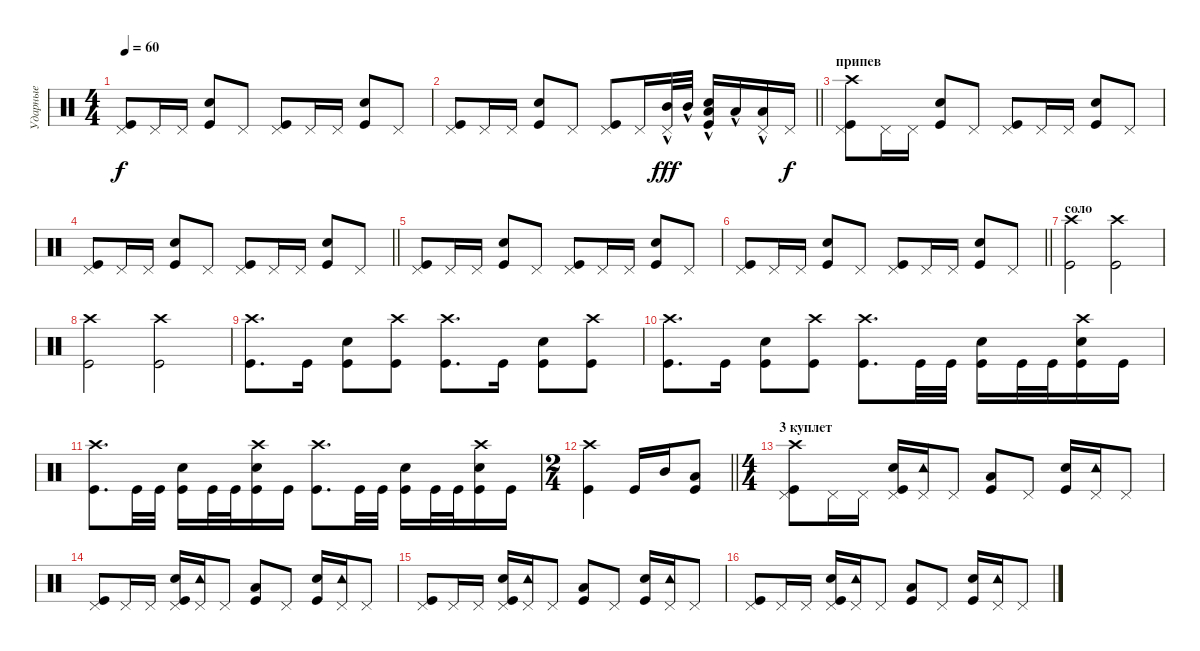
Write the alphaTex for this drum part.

\track ("Ударные" "Ударные") {instrument percussion}
\staff {score}
\articulation defaults
\ts (4 4)
\tempo 60
\clef neutral
\ks c
("Pedal Hi-Hat (hit)" "Kick (hit)").8{dy f} "Pedal Hi-Hat (hit)".16 "Pedal Hi-Hat (hit)".16 ("Kick (hit)" "Snare (hit) 2").8 "Pedal Hi-Hat (hit)".8 ("Pedal Hi-Hat (hit)" "Kick (hit)").8 "Pedal Hi-Hat (hit)".16 "Pedal Hi-Hat (hit)".16 ("Kick (hit)" "Snare (hit) 2").8 "Pedal Hi-Hat (hit)".8 |
\barLineRight lightlight
("Pedal Hi-Hat (hit)" "Kick (hit)").8 "Pedal Hi-Hat (hit)".16 "Pedal Hi-Hat (hit)".16 ("Kick (hit)" "Snare (hit) 2").8 "Pedal Hi-Hat (hit)".8 ("Pedal Hi-Hat (hit)" "Kick (hit)").8 "Pedal Hi-Hat (hit)".16 ("Pedal Hi-Hat (hit)" "Mid Tom (hit)"{hac}).32{dy fff} "Mid Tom (hit)"{hac}.32 ("Low Tom (hit)"{hac} "Snare (hit) 2" "Kick (hit)").16 "Low Tom (hit)"{hac}.16 ("Pedal Hi-Hat (hit)" "Low Tom (hit)"{hac}).16 "Pedal Hi-Hat (hit)".16{dy f} |
\section ("" "припев")
("Pedal Hi-Hat (hit)" "Kick (hit)" "Crash high (hit)").8 "Pedal Hi-Hat (hit)".16 "Pedal Hi-Hat (hit)".16 ("Kick (hit)" "Snare (hit) 2").8 "Pedal Hi-Hat (hit)".8 ("Pedal Hi-Hat (hit)" "Kick (hit)").8 "Pedal Hi-Hat (hit)".16 "Pedal Hi-Hat (hit)".16 ("Kick (hit)" "Snare (hit) 2").8 "Pedal Hi-Hat (hit)".8 |
\barLineRight lightlight
("Pedal Hi-Hat (hit)" "Kick (hit)").8 "Pedal Hi-Hat (hit)".16 "Pedal Hi-Hat (hit)".16 ("Kick (hit)" "Snare (hit) 2").8 "Pedal Hi-Hat (hit)".8 ("Pedal Hi-Hat (hit)" "Kick (hit)").8 "Pedal Hi-Hat (hit)".16 "Pedal Hi-Hat (hit)".16 ("Kick (hit)" "Snare (hit) 2").8 "Pedal Hi-Hat (hit)".8 |
("Pedal Hi-Hat (hit)" "Kick (hit)").8 "Pedal Hi-Hat (hit)".16 "Pedal Hi-Hat (hit)".16 ("Kick (hit)" "Snare (hit) 2").8 "Pedal Hi-Hat (hit)".8 ("Pedal Hi-Hat (hit)" "Kick (hit)").8 "Pedal Hi-Hat (hit)".16 "Pedal Hi-Hat (hit)".16 ("Kick (hit)" "Snare (hit) 2").8 "Pedal Hi-Hat (hit)".8 |
\barLineRight lightlight
("Pedal Hi-Hat (hit)" "Kick (hit)").8 "Pedal Hi-Hat (hit)".16 "Pedal Hi-Hat (hit)".16 ("Kick (hit)" "Snare (hit) 2").8 "Pedal Hi-Hat (hit)".8 ("Pedal Hi-Hat (hit)" "Kick (hit)").8 "Pedal Hi-Hat (hit)".16 "Pedal Hi-Hat (hit)".16 ("Kick (hit)" "Snare (hit) 2").8 "Pedal Hi-Hat (hit)".8 |
\section ("" "соло")
("Crash high (hit)" "Kick (hit)").2 ("Crash high (hit)" "Kick (hit)").2 |
("Kick (hit)" "Crash high (hit)").2 ("Kick (hit)" "Crash high (hit)").2 |
("Kick (hit)" "Crash high (hit)").8{d} "Kick (hit)".16 ("Kick (hit)" "Snare (hit) 2").8 ("Kick (hit)" "Crash high (hit)").8 ("Kick (hit)" "Crash high (hit)").8{d} "Kick (hit)".16 ("Kick (hit)" "Snare (hit) 2").8 ("Kick (hit)" "Crash high (hit)").8 |
("Kick (hit)" "Crash high (hit)").8{d} "Kick (hit)".16 ("Kick (hit)" "Snare (hit) 2").8 ("Kick (hit)" "Crash high (hit)").8 ("Kick (hit)" "Crash high (hit)").8{d} "Kick (hit)".32 "Kick (hit)".32 ("Kick (hit)" "Snare (hit) 2").16 "Kick (hit)".32 "Kick (hit)".32 ("Kick (hit)" "Snare (hit) 2" "Crash high (hit)").16 "Kick (hit)".16 |
("Kick (hit)" "Crash high (hit)").8{d} "Kick (hit)".32 "Kick (hit)".32 ("Kick (hit)" "Snare (hit) 2").16 "Kick (hit)".32 "Kick (hit)".32 ("Kick (hit)" "Snare (hit) 2" "Crash high (hit)").16 "Kick (hit)".16 ("Kick (hit)" "Crash high (hit)").8{d} "Kick (hit)".32 "Kick (hit)".32 ("Kick (hit)" "Snare (hit) 2").16 "Kick (hit)".32 "Kick (hit)".32 ("Kick (hit)" "Snare (hit) 2" "Crash high (hit)").16 "Kick (hit)".16 |
\ts (2 4)
\barLineRight lightlight
("Kick (hit)" "Crash high (hit)").4 "Kick (hit)".16 "Mid Tom (hit)".16 ("Kick (hit)" "Low Tom (hit)").8 |
\ts (4 4)
\section ("" "3 куплет")
("Pedal Hi-Hat (hit)" "Kick (hit)" "Crash high (hit)").8 "Pedal Hi-Hat (hit)".16 "Pedal Hi-Hat (hit)".16 ("Pedal Hi-Hat (hit)" "Kick (hit)" "Snare (hit) 2").16 ("Pedal Hi-Hat (hit)" "Tambourine (hit)").16 "Pedal Hi-Hat (hit)".8 ("Kick (hit)" "Low Tom (hit)").8 "Pedal Hi-Hat (hit)".8 ("Kick (hit)" "Snare (hit) 2").16 ("Pedal Hi-Hat (hit)" "Tambourine (hit)").16 "Pedal Hi-Hat (hit)".8 |
("Pedal Hi-Hat (hit)" "Kick (hit)").8 "Pedal Hi-Hat (hit)".16 "Pedal Hi-Hat (hit)".16 ("Pedal Hi-Hat (hit)" "Kick (hit)" "Snare (hit) 2").16 ("Pedal Hi-Hat (hit)" "Tambourine (hit)").16 "Pedal Hi-Hat (hit)".8 ("Kick (hit)" "Low Tom (hit)").8 "Pedal Hi-Hat (hit)".8 ("Kick (hit)" "Snare (hit) 2").16 ("Pedal Hi-Hat (hit)" "Tambourine (hit)").16 "Pedal Hi-Hat (hit)".8 |
("Pedal Hi-Hat (hit)" "Kick (hit)").8 "Pedal Hi-Hat (hit)".16 "Pedal Hi-Hat (hit)".16 ("Pedal Hi-Hat (hit)" "Kick (hit)" "Snare (hit) 2").16 ("Pedal Hi-Hat (hit)" "Tambourine (hit)").16 "Pedal Hi-Hat (hit)".8 ("Kick (hit)" "Low Tom (hit)").8 "Pedal Hi-Hat (hit)".8 ("Kick (hit)" "Snare (hit) 2").16 ("Pedal Hi-Hat (hit)" "Tambourine (hit)").16 "Pedal Hi-Hat (hit)".8 |
("Pedal Hi-Hat (hit)" "Kick (hit)").8 "Pedal Hi-Hat (hit)".16 "Pedal Hi-Hat (hit)".16 ("Pedal Hi-Hat (hit)" "Kick (hit)" "Snare (hit) 2").16 ("Pedal Hi-Hat (hit)" "Tambourine (hit)").16 "Pedal Hi-Hat (hit)".8 ("Kick (hit)" "Low Tom (hit)").8 "Pedal Hi-Hat (hit)".8 ("Kick (hit)" "Snare (hit) 2").16 ("Pedal Hi-Hat (hit)" "Tambourine (hit)").16 "Pedal Hi-Hat (hit)".8
